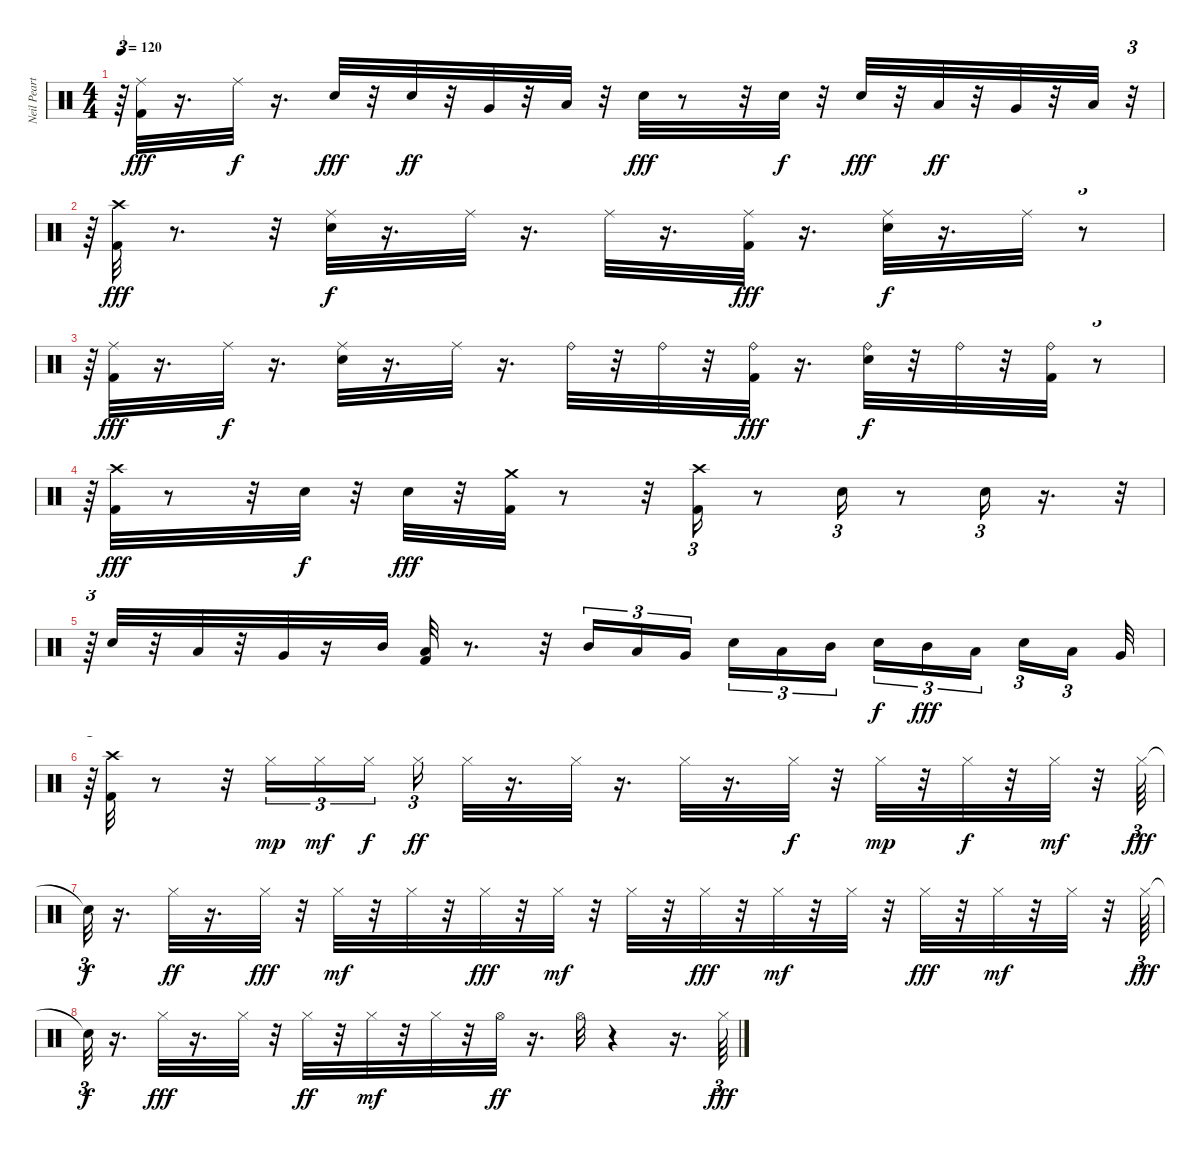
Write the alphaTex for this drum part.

\track ("Neil Peart" "Neil Peart") {instrument percussion}
\staff {score}
\articulation defaults
\ts (4 4)
\tempo 120
\clef neutral
\ks c
r.64{tu (3 2) dy f} ("Ride (middle)" "Kick (hit) 2").32{dy fff} r.16{d} "Ride (middle)".32{dy f} r.16{d} "Snare (hit) 2".32{dy fff} r.32 "Snare (hit) 2".32{dy ff} r.32 "Very Low Tom (hit)".32 r.32 "Low Tom (hit)".32 r.32 "Snare (hit) 2".32{dy fff} r.8 r.32 "Snare (hit) 2".32{dy f} r.32 "Snare (hit) 2".32{dy fff} r.32 "Low Tom (hit)".32{dy ff} r.32 "Very Low Tom (hit)".32 r.32 "Low Floor Tom (hit)".32 r.32{tu (3 2)} |
r.64{tu (3 2)} ("Kick (hit) 2" "Crash high (hit)").32{dy fff} r.8{d} r.32 ("Ride (middle)" "Snare (hit) 2").32{dy f} r.16{d} "Ride (middle)".32 r.16{d} "Ride (middle)".32 r.16{d} ("Ride (middle)" "Kick (hit) 2").32{dy fff} r.16{d} ("Ride (middle)" "Snare (hit) 2").32{dy f} r.16{d} "Ride (middle)".32 r.8{tu (3 2)} |
r.64{tu (3 2)} ("Ride (middle)" "Kick (hit) 2").32{dy fff} r.16{d} "Ride (middle)".32{dy f} r.16{d} ("Ride (middle)" "Snare (hit) 2").32 r.16{d} "Ride (middle)".32 r.16{d} "Ride (bell)".32 r.32 "Ride (bell)".32 r.32 ("Ride (bell)" "Kick (hit) 2").32{dy fff} r.16{d} ("Ride (bell)" "Snare (hit) 2").32{dy f} r.32 "Ride (bell)".32 r.32 ("Kick (hit) 2" "Ride (bell)").32 r.8{tu (3 2)} |
r.64{tu (3 2)} ("Crash high (hit)" "Kick (hit) 2").32{dy fff} r.8 r.32 "Snare (hit) 2".32{dy f} r.32 "Snare (hit) 2".32{dy fff} r.32 ("Crash medium (hit)" "Kick (hit) 2").32 r.8 r.32 ("Crash high (hit)" "Kick (hit) 2").16{tu (3 2)} r.8 "Snare (hit) 2".16{tu (3 2)} r.8 "Snare (hit) 2".16{tu (3 2)} r.16{d} r.32{tu (3 2)} |
r.64{tu (3 2)} "Snare (hit) 2".32 r.32 "Low Tom (hit)".32 r.32 "Very Low Tom (hit)".32 r.16 "Mid Tom (hit)".32 ("Kick (hit) 2" "Low Floor Tom (hit)").32 r.8{d} r.32 "Mid Tom (hit)".16{tu (3 2)} "Low Tom (hit)".16{tu (3 2)} "Very Low Tom (hit)".16{tu (3 2) beam splitsecondary} "Snare (hit) 2".16{tu (3 2)} "Low Tom (hit)".16{tu (3 2)} "Mid Tom (hit)".16{tu (3 2)} "Snare (hit) 2".16{tu (3 2) dy f} "Mid Tom (hit)".16{tu (3 2) dy fff} "Low Tom (hit)".16{tu (3 2) beam splitsecondary} "Snare (hit) 2".16{tu (3 2)} "Low Tom (hit)".16{tu (3 2) beam splitsecondary} "Very Low Tom (hit)".32 |
r.64{tu (3 2)} ("Kick (hit) 2" "Crash high (hit)").32 r.8 r.32 "Hi-Hat (closed)".16{tu (3 2) dy mp} "Hi-Hat (closed)".16{tu (3 2) dy mf} "Hi-Hat (closed)".16{tu (3 2) dy f beam splitsecondary} "Hi-Hat (closed)".16{tu (3 2) dy ff} "Hi-Hat (closed)".32 r.16{d} "Hi-Hat (closed)".32 r.16{d} "Hi-Hat (closed)".32 r.16{d} "Hi-Hat (closed)".32{dy f} r.32 "Hi-Hat (closed)".32{dy mp} r.32 "Hi-Hat (closed)".32{dy f} r.32 "Hi-Hat (closed)".32{dy mf} r.32 "Hi-Hat (closed)".64{tu (3 2) dy fff} |
"Snare (hit)"{t}.32{tu (3 2) dy f} r.16{d} "Hi-Hat (closed)".32{dy ff} r.16{d} "Hi-Hat (closed)".32{dy fff} r.32 "Hi-Hat (closed)".32{dy mf} r.32 "Hi-Hat (closed)".32 r.32 "Hi-Hat (closed)".32{dy fff} r.32 "Hi-Hat (closed)".32{dy mf} r.32 "Hi-Hat (closed)".32 r.32 "Hi-Hat (closed)".32{dy fff} r.32 "Hi-Hat (closed)".32{dy mf} r.32 "Hi-Hat (closed)".32 r.32 "Hi-Hat (closed)".32{dy fff} r.32 "Hi-Hat (closed)".32{dy mf} r.32 "Hi-Hat (closed)".32 r.32 "Hi-Hat (closed)".64{tu (3 2) dy fff} |
"Snare (hit)"{t}.32{tu (3 2) dy f} r.16{d} "Hi-Hat (closed)".32{dy fff} r.16{d} "Hi-Hat (closed)".32 r.32 "Hi-Hat (closed)".32{dy ff} r.32 "Hi-Hat (closed)".32{dy mf} r.32 "Hi-Hat (closed)".32 r.32 "Hi-Hat (open)".32{dy ff} r.16{d} "Hi-Hat (open)".32 r.4 r.16{d} "Hi-Hat (closed)".64{tu (3 2) dy fff}
